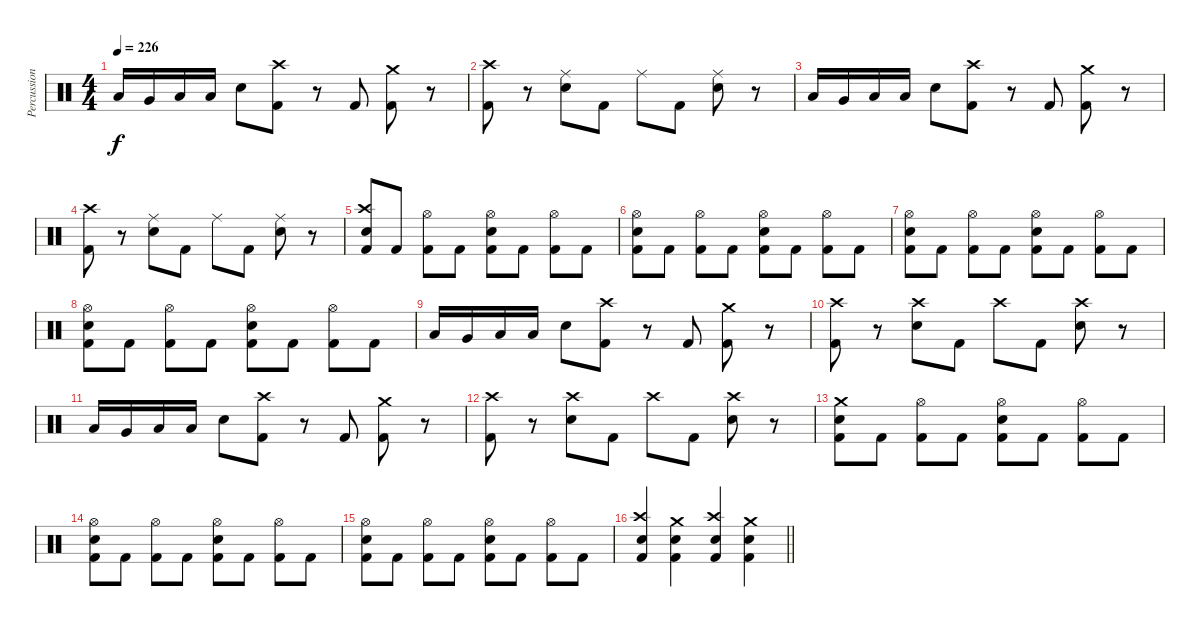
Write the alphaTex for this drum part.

\track ("Percussion" "Percussion") {instrument percussion}
\staff {score}
\articulation defaults
\ts (4 4)
\section ("" "")
\tempo 226
\clef neutral
\ks c "Low Tom (hit)".16{dy f} "Very Low Tom (hit)".16 "Low Floor Tom (hit)".16 "Low Floor Tom (hit)".16 "Snare (hit) 2".8
("Crash high (hit)" "Kick (hit) 2").8 r.8 "Kick (hit) 2".8 ("Crash medium (hit)" "Kick (hit) 2").8 r.8 |
("Crash high (hit)" "Kick (hit) 2").8 r.8 ("Ride (middle)" "Snare (hit) 2").8 "Kick (hit) 2".8 "Ride (middle)".8 "Kick (hit) 2".8 ("Ride (middle)" "Snare (hit) 2").8 r.8 |
"Low Tom (hit)".16 "Very Low Tom (hit)".16 "Low Floor Tom (hit)".16 "Low Floor Tom (hit)".16 "Snare (hit) 2".8 ("Crash high (hit)" "Kick (hit) 2").8 r.8 "Kick (hit) 2".8 ("Crash medium (hit)" "Kick (hit) 2").8 r.8 |
("Crash high (hit)" "Kick (hit) 2").8 r.8 ("Ride (middle)" "Snare (hit) 2").8 "Kick (hit) 2".8 "Ride (middle)".8 "Kick (hit) 2".8 ("Ride (middle)" "Snare (hit) 2").8 r.8 |
("Crash high (hit)" "Snare (hit) 2" "Kick (hit) 2").8 "Kick (hit) 2".8 ("Hi-Hat (open)" "Kick (hit) 2").8 "Kick (hit) 2".8 ("Hi-Hat (open)" "Snare (hit) 2" "Kick (hit) 2").8 "Kick (hit) 2".8 ("Hi-Hat (open)" "Kick (hit) 2").8 "Kick (hit) 2".8 |
("Hi-Hat (open)" "Snare (hit) 2" "Kick (hit) 2").8 "Kick (hit) 2".8 ("Hi-Hat (open)" "Kick (hit) 2").8 "Kick (hit) 2".8 ("Hi-Hat (open)" "Snare (hit) 2" "Kick (hit) 2").8 "Kick (hit) 2".8 ("Hi-Hat (open)" "Kick (hit) 2").8 "Kick (hit) 2".8 |
("Hi-Hat (open)" "Snare (hit) 2" "Kick (hit) 2").8 "Kick (hit) 2".8 ("Hi-Hat (open)" "Kick (hit) 2").8 "Kick (hit) 2".8 ("Hi-Hat (open)" "Snare (hit) 2" "Kick (hit) 2").8 "Kick (hit) 2".8 ("Hi-Hat (open)" "Kick (hit) 2").8 "Kick (hit) 2".8 |
("Hi-Hat (open)" "Snare (hit) 2" "Kick (hit) 2").8 "Kick (hit) 2".8 ("Hi-Hat (open)" "Kick (hit) 2").8 "Kick (hit) 2".8 ("Hi-Hat (open)" "Snare (hit) 2" "Kick (hit) 2").8 "Kick (hit) 2".8 ("Hi-Hat (open)" "Kick (hit) 2").8 "Kick (hit) 2".8 |
"Low Tom (hit)".16 "Very Low Tom (hit)".16 "Low Floor Tom (hit)".16 "Low Floor Tom (hit)".16 "Snare (hit) 2".8 ("Crash high (hit)" "Kick (hit) 2").8 r.8 "Kick (hit) 2".8 ("Crash medium (hit)" "Kick (hit) 2").8 r.8 |
("Crash high (hit)" "Kick (hit) 2").8 r.8 ("Crash high (hit)" "Snare (hit) 2").8 "Kick (hit) 2".8 "Crash high (hit)".8 "Kick (hit) 2".8 ("Crash high (hit)" "Snare (hit) 2").8 r.8 |
"Low Tom (hit)".16 "Very Low Tom (hit)".16 "Low Floor Tom (hit)".16 "Low Floor Tom (hit)".16 "Snare (hit) 2".8 ("Crash high (hit)" "Kick (hit) 2").8 r.8 "Kick (hit) 2".8 ("Crash medium (hit)" "Kick (hit) 2").8 r.8 |
("Crash high (hit)" "Kick (hit) 2").8 r.8 ("Crash high (hit)" "Snare (hit) 2").8 "Kick (hit) 2".8 "Crash high (hit)".8 "Kick (hit) 2".8 ("Crash high (hit)" "Snare (hit) 2").8 r.8 |
("Crash medium (hit)" "Snare (hit) 2" "Kick (hit) 2").8 "Kick (hit) 2".8 ("Hi-Hat (open)" "Kick (hit) 2").8 "Kick (hit) 2".8 ("Hi-Hat (open)" "Snare (hit) 2" "Kick (hit) 2").8 "Kick (hit) 2".8 ("Hi-Hat (open)" "Kick (hit) 2").8 "Kick (hit) 2".8 |
("Hi-Hat (open)" "Snare (hit) 2" "Kick (hit) 2").8 "Kick (hit) 2".8 ("Hi-Hat (open)" "Kick (hit) 2").8 "Kick (hit) 2".8 ("Hi-Hat (open)" "Snare (hit) 2" "Kick (hit) 2").8 "Kick (hit) 2".8 ("Hi-Hat (open)" "Kick (hit) 2").8 "Kick (hit) 2".8 |
("Hi-Hat (open)" "Snare (hit) 2" "Kick (hit) 2").8 "Kick (hit) 2".8 ("Hi-Hat (open)" "Kick (hit) 2").8 "Kick (hit) 2".8 ("Hi-Hat (open)" "Snare (hit) 2" "Kick (hit) 2").8 "Kick (hit) 2".8 ("Hi-Hat (open)" "Kick (hit) 2").8 "Kick (hit) 2".8 |
\barLineRight lightlight
("Crash high (hit)" "Snare (hit) 2" "Kick (hit) 2").4 ("Crash medium (hit)" "Snare (hit) 2" "Kick (hit) 2").4 ("Crash high (hit)" "Snare (hit) 2" "Kick (hit) 2").4 ("Crash medium (hit)" "Snare (hit) 2" "Kick (hit) 2").4
